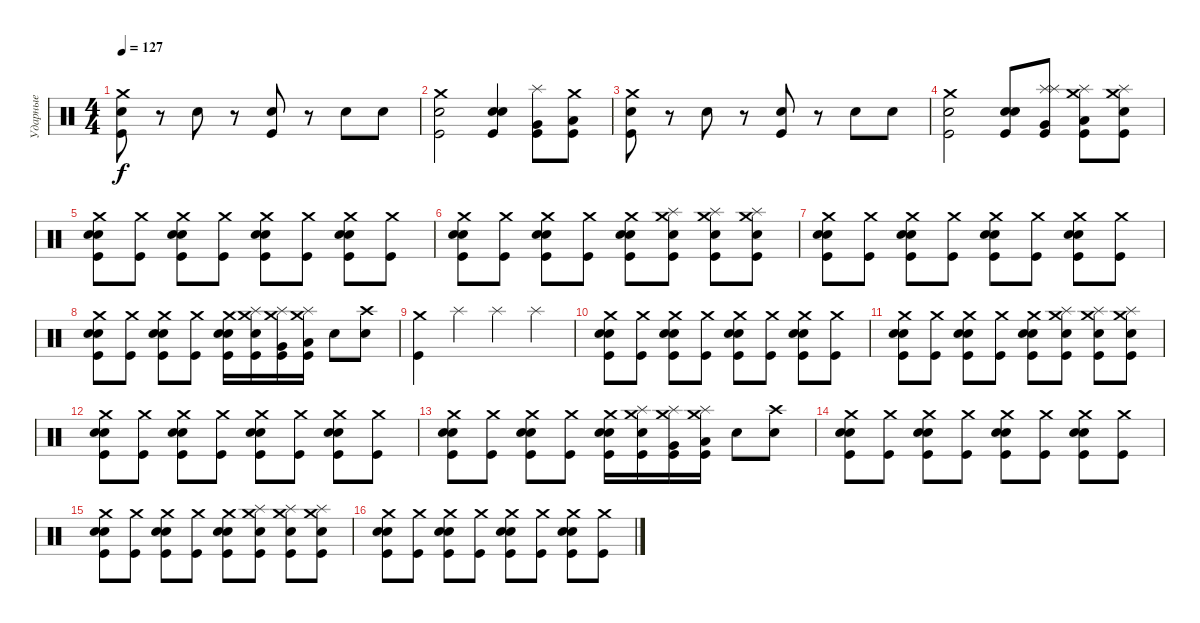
\track ("Ударные" "Ударные") {instrument percussion}
\staff {score}
\articulation defaults
\ts (4 4)
\tempo 127
\clef neutral
\ks c
("Crash medium (hit)" "Snare (hit) 2" "Kick (hit)").8{dy f} r.8 "Electric Snare (hit)".8 r.8 ("Snare (hit) 2" "Kick (hit)").8 r.8 "Electric Snare (hit)".8 "Snare (hit) 2".8 |
("Crash medium (hit)" "Snare (hit) 2" "Kick (hit)").2 ("Electric Snare (hit)" "Electric Snare (hit)" "Kick (hit)").4 ("Splash (hit)" "Very Low Tom (hit)" "Kick (hit)").8 ("Crash medium (hit)" "Low Floor Tom (hit)" "Kick (hit)").8 |
("Crash medium (hit)" "Snare (hit) 2" "Kick (hit)").8 r.8 "Electric Snare (hit)".8 r.8 ("Snare (hit) 2" "Kick (hit)").8 r.8 "Electric Snare (hit)".8 "Snare (hit) 2".8 |
("Crash medium (hit)" "Snare (hit) 2" "Kick (hit)").2 ("Electric Snare (hit)" "Electric Snare (hit)" "Kick (hit)").8 ("Splash (hit)" "Splash (hit)" "Very Low Tom (hit)" "Kick (hit)").8 ("Crash medium (hit)" "Splash (hit)" "Low Floor Tom (hit)" "Kick (hit)").8 ("Crash medium (hit)" "Splash (hit)" "Electric Snare (hit)" "Kick (hit)").8 |
("Crash medium (hit)" "Snare (hit) 2" "Snare (hit) 2" "Kick (hit)").8 ("Crash medium (hit)" "Kick (hit)").8 ("Crash medium (hit)" "Snare (hit) 2" "Snare (hit) 2" "Kick (hit)").8 ("Crash medium (hit)" "Kick (hit)").8 ("Crash medium (hit)" "Snare (hit) 2" "Snare (hit) 2" "Kick (hit)").8 ("Crash medium (hit)" "Kick (hit)").8 ("Crash medium (hit)" "Snare (hit) 2" "Snare (hit) 2" "Kick (hit)").8 ("Crash medium (hit)" "Kick (hit)").8 |
("Crash medium (hit)" "Snare (hit) 2" "Snare (hit) 2" "Kick (hit)").8 ("Crash medium (hit)" "Kick (hit)").8 ("Crash medium (hit)" "Snare (hit) 2" "Snare (hit) 2" "Kick (hit)").8 ("Crash medium (hit)" "Kick (hit)").8 ("Crash medium (hit)" "Snare (hit) 2" "Snare (hit) 2" "Kick (hit)").8 ("Crash medium (hit)" "Electric Snare (hit)" "Splash (hit)" "Kick (hit)").8 ("Crash medium (hit)" "Electric Snare (hit)" "Splash (hit)" "Kick (hit)").8 ("Crash medium (hit)" "Electric Snare (hit)" "Splash (hit)" "Kick (hit)").8 |
("Crash medium (hit)" "Snare (hit) 2" "Snare (hit) 2" "Kick (hit)").8 ("Crash medium (hit)" "Kick (hit)").8 ("Crash medium (hit)" "Snare (hit) 2" "Snare (hit) 2" "Kick (hit)").8 ("Crash medium (hit)" "Kick (hit)").8 ("Crash medium (hit)" "Snare (hit) 2" "Snare (hit) 2" "Kick (hit)").8 ("Crash medium (hit)" "Kick (hit)").8 ("Crash medium (hit)" "Snare (hit) 2" "Snare (hit) 2" "Kick (hit)").8 ("Crash medium (hit)" "Kick (hit)").8 |
("Crash medium (hit)" "Snare (hit) 2" "Snare (hit) 2" "Kick (hit)").8 ("Crash medium (hit)" "Kick (hit)").8 ("Crash medium (hit)" "Snare (hit) 2" "Snare (hit) 2" "Kick (hit)").8 ("Crash medium (hit)" "Kick (hit)").8 ("Crash medium (hit)" "Snare (hit) 2" "Snare (hit) 2" "Kick (hit)").16 ("Crash medium (hit)" "Electric Snare (hit)" "Splash (hit)" "Kick (hit)").16 ("Crash medium (hit)" "Very Low Tom (hit)" "Splash (hit)" "Kick (hit)").16 ("Crash medium (hit)" "Low Floor Tom (hit)" "Splash (hit)" "Kick (hit)").16 "Electric Snare (hit)".8 ("Crash high (hit)" "Snare (hit) 2").8 |
("Crash medium (hit)" "Kick (hit)").4 "Splash (hit)".4 "Splash (hit)".4 "Splash (hit)".4 |
("Crash medium (hit)" "Snare (hit) 2" "Snare (hit) 2" "Kick (hit)").8 ("Crash medium (hit)" "Kick (hit)").8 ("Crash medium (hit)" "Snare (hit) 2" "Snare (hit) 2" "Kick (hit)").8 ("Crash medium (hit)" "Kick (hit)").8 ("Crash medium (hit)" "Snare (hit) 2" "Snare (hit) 2" "Kick (hit)").8 ("Crash medium (hit)" "Kick (hit)").8 ("Crash medium (hit)" "Snare (hit) 2" "Snare (hit) 2" "Kick (hit)").8 ("Crash medium (hit)" "Kick (hit)").8 |
("Crash medium (hit)" "Snare (hit) 2" "Snare (hit) 2" "Kick (hit)").8 ("Crash medium (hit)" "Kick (hit)").8 ("Crash medium (hit)" "Snare (hit) 2" "Snare (hit) 2" "Kick (hit)").8 ("Crash medium (hit)" "Kick (hit)").8 ("Crash medium (hit)" "Snare (hit) 2" "Snare (hit) 2" "Kick (hit)").8 ("Crash medium (hit)" "Electric Snare (hit)" "Splash (hit)" "Kick (hit)").8 ("Crash medium (hit)" "Electric Snare (hit)" "Splash (hit)" "Kick (hit)").8 ("Crash medium (hit)" "Electric Snare (hit)" "Splash (hit)" "Kick (hit)").8 |
("Crash medium (hit)" "Snare (hit) 2" "Snare (hit) 2" "Kick (hit)").8 ("Crash medium (hit)" "Kick (hit)").8 ("Crash medium (hit)" "Snare (hit) 2" "Snare (hit) 2" "Kick (hit)").8 ("Crash medium (hit)" "Kick (hit)").8 ("Crash medium (hit)" "Snare (hit) 2" "Snare (hit) 2" "Kick (hit)").8 ("Crash medium (hit)" "Kick (hit)").8 ("Crash medium (hit)" "Snare (hit) 2" "Snare (hit) 2" "Kick (hit)").8 ("Crash medium (hit)" "Kick (hit)").8 |
("Crash medium (hit)" "Snare (hit) 2" "Snare (hit) 2" "Kick (hit)").8 ("Crash medium (hit)" "Kick (hit)").8 ("Crash medium (hit)" "Snare (hit) 2" "Snare (hit) 2" "Kick (hit)").8 ("Crash medium (hit)" "Kick (hit)").8 ("Crash medium (hit)" "Snare (hit) 2" "Snare (hit) 2" "Kick (hit)").16 ("Crash medium (hit)" "Electric Snare (hit)" "Splash (hit)" "Kick (hit)").16 ("Crash medium (hit)" "Very Low Tom (hit)" "Splash (hit)" "Kick (hit)").16 ("Crash medium (hit)" "Low Floor Tom (hit)" "Splash (hit)" "Kick (hit)").16 "Electric Snare (hit)".8 ("Crash high (hit)" "Snare (hit) 2").8 |
("Crash medium (hit)" "Snare (hit) 2" "Snare (hit) 2" "Kick (hit)").8 ("Crash medium (hit)" "Kick (hit)").8 ("Crash medium (hit)" "Snare (hit) 2" "Snare (hit) 2" "Kick (hit)").8 ("Crash medium (hit)" "Kick (hit)").8 ("Crash medium (hit)" "Snare (hit) 2" "Snare (hit) 2" "Kick (hit)").8 ("Crash medium (hit)" "Kick (hit)").8 ("Crash medium (hit)" "Snare (hit) 2" "Snare (hit) 2" "Kick (hit)").8 ("Crash medium (hit)" "Kick (hit)").8 |
("Crash medium (hit)" "Snare (hit) 2" "Snare (hit) 2" "Kick (hit)").8 ("Crash medium (hit)" "Kick (hit)").8 ("Crash medium (hit)" "Snare (hit) 2" "Snare (hit) 2" "Kick (hit)").8 ("Crash medium (hit)" "Kick (hit)").8 ("Crash medium (hit)" "Snare (hit) 2" "Snare (hit) 2" "Kick (hit)").8 ("Crash medium (hit)" "Electric Snare (hit)" "Splash (hit)" "Kick (hit)").8 ("Crash medium (hit)" "Electric Snare (hit)" "Splash (hit)" "Kick (hit)").8 ("Crash medium (hit)" "Electric Snare (hit)" "Splash (hit)" "Kick (hit)").8 |
("Crash medium (hit)" "Snare (hit) 2" "Snare (hit) 2" "Kick (hit)").8 ("Crash medium (hit)" "Kick (hit)").8 ("Crash medium (hit)" "Snare (hit) 2" "Snare (hit) 2" "Kick (hit)").8 ("Crash medium (hit)" "Kick (hit)").8 ("Crash medium (hit)" "Snare (hit) 2" "Snare (hit) 2" "Kick (hit)").8 ("Crash medium (hit)" "Kick (hit)").8 ("Crash medium (hit)" "Snare (hit) 2" "Snare (hit) 2" "Kick (hit)").8 ("Crash medium (hit)" "Kick (hit)").8
